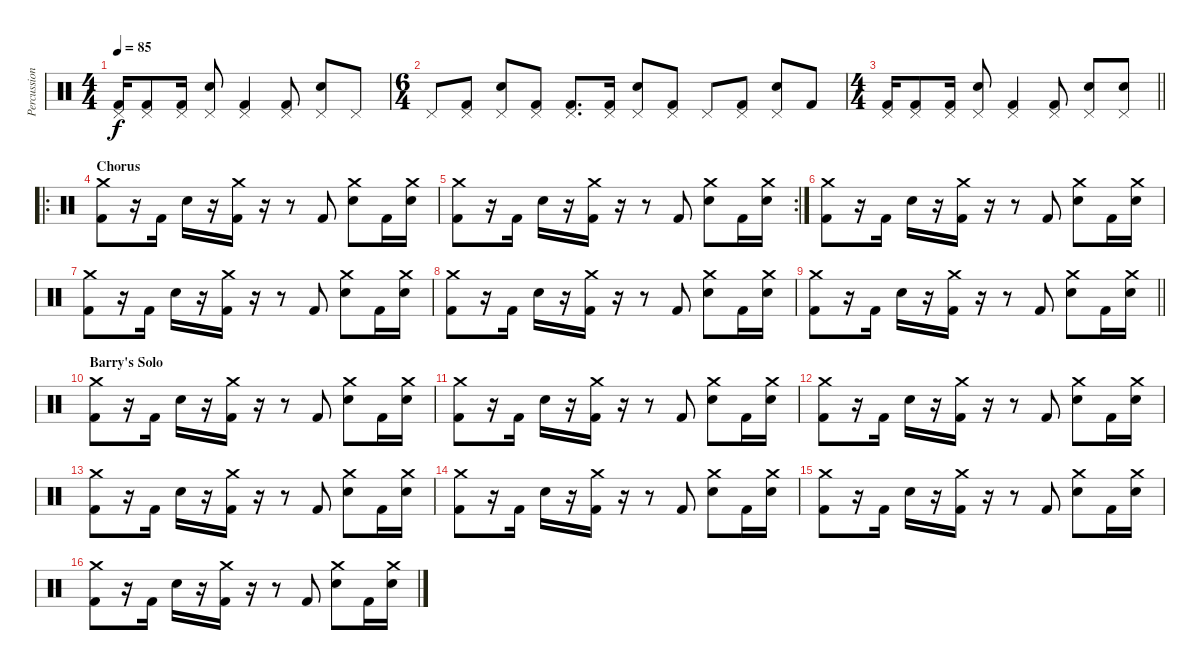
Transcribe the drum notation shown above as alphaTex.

\track ("Percussion (N. Sanderson)" "Percussion") {instrument percussion}
\staff {score}
\articulation defaults
\ts (4 4)
\tempo 85
\clef neutral
\ks c
("Pedal Hi-Hat (hit)" "Kick (hit) 2").16{dy f} ("Pedal Hi-Hat (hit)" "Kick (hit) 2").8 ("Pedal Hi-Hat (hit)" "Kick (hit) 2").16 ("Pedal Hi-Hat (hit)" "Electric Snare (hit)").8 ("Pedal Hi-Hat (hit)" "Kick (hit) 2").4 ("Pedal Hi-Hat (hit)" "Kick (hit) 2").8 ("Pedal Hi-Hat (hit)" "Electric Snare (hit)").8 "Pedal Hi-Hat (hit)".8 |
\ts (6 4)
"Pedal Hi-Hat (hit)".8 ("Pedal Hi-Hat (hit)" "Kick (hit) 2").8 ("Pedal Hi-Hat (hit)" "Electric Snare (hit)").8 ("Pedal Hi-Hat (hit)" "Kick (hit) 2").8 ("Pedal Hi-Hat (hit)" "Kick (hit) 2").8{d} ("Pedal Hi-Hat (hit)" "Kick (hit) 2").16 ("Pedal Hi-Hat (hit)" "Electric Snare (hit)").8 ("Pedal Hi-Hat (hit)" "Kick (hit) 2").8 "Pedal Hi-Hat (hit)".8 ("Pedal Hi-Hat (hit)" "Kick (hit) 2").8 ("Pedal Hi-Hat (hit)" "Electric Snare (hit)").8 "Kick (hit) 2".8 |
\ts (4 4)
\barLineRight lightlight
("Pedal Hi-Hat (hit)" "Kick (hit) 2").16 ("Pedal Hi-Hat (hit)" "Kick (hit) 2").8 ("Pedal Hi-Hat (hit)" "Kick (hit) 2").16 ("Pedal Hi-Hat (hit)" "Electric Snare (hit)").8 ("Pedal Hi-Hat (hit)" "Kick (hit) 2").4 ("Pedal Hi-Hat (hit)" "Kick (hit) 2").8 ("Pedal Hi-Hat (hit)" "Electric Snare (hit)").8 ("Pedal Hi-Hat (hit)" "Electric Snare (hit)").8 |
\ro
\section ("" "Chorus")
("Crash medium (hit)" "Kick (hit) 2").8 r.16 "Kick (hit) 2".16 "Electric Snare (hit)".16 r.16 ("Crash medium (hit)" "Kick (hit) 2").16 r.16 r.8 "Kick (hit) 2".8 ("Crash medium (hit)" "Electric Snare (hit)").8 "Kick (hit) 2".16 ("Crash medium (hit)" "Electric Snare (hit)").16 |
\rc 2
("Crash medium (hit)" "Kick (hit) 2").8 r.16 "Kick (hit) 2".16 "Electric Snare (hit)".16 r.16 ("Crash medium (hit)" "Kick (hit) 2").16 r.16 r.8 "Kick (hit) 2".8 ("Crash medium (hit)" "Electric Snare (hit)").8 "Kick (hit) 2".16 ("Crash medium (hit)" "Electric Snare (hit)").16 |
("Crash medium (hit)" "Kick (hit) 2").8 r.16 "Kick (hit) 2".16 "Electric Snare (hit)".16 r.16 ("Crash medium (hit)" "Kick (hit) 2").16 r.16 r.8 "Kick (hit) 2".8 ("Crash medium (hit)" "Electric Snare (hit)").8 "Kick (hit) 2".16 ("Crash medium (hit)" "Electric Snare (hit)").16 |
("Crash medium (hit)" "Kick (hit) 2").8 r.16 "Kick (hit) 2".16 "Electric Snare (hit)".16 r.16 ("Crash medium (hit)" "Kick (hit) 2").16 r.16 r.8 "Kick (hit) 2".8 ("Crash medium (hit)" "Electric Snare (hit)").8 "Kick (hit) 2".16 ("Crash medium (hit)" "Electric Snare (hit)").16 |
("Crash medium (hit)" "Kick (hit) 2").8 r.16 "Kick (hit) 2".16 "Electric Snare (hit)".16 r.16 ("Crash medium (hit)" "Kick (hit) 2").16 r.16 r.8 "Kick (hit) 2".8 ("Crash medium (hit)" "Electric Snare (hit)").8 "Kick (hit) 2".16 ("Crash medium (hit)" "Electric Snare (hit)").16 |
\barLineRight lightlight
("Crash medium (hit)" "Kick (hit) 2").8 r.16 "Kick (hit) 2".16 "Electric Snare (hit)".16 r.16 ("Crash medium (hit)" "Kick (hit) 2").16 r.16 r.8 "Kick (hit) 2".8 ("Crash medium (hit)" "Electric Snare (hit)").8 "Kick (hit) 2".16 ("Crash medium (hit)" "Electric Snare (hit)").16 |
\section ("" "Barry's Solo")
("Crash medium (hit)" "Kick (hit) 2").8 r.16 "Kick (hit) 2".16 "Electric Snare (hit)".16 r.16 ("Crash medium (hit)" "Kick (hit) 2").16 r.16 r.8 "Kick (hit) 2".8 ("Crash medium (hit)" "Electric Snare (hit)").8 "Kick (hit) 2".16 ("Crash medium (hit)" "Electric Snare (hit)").16 |
("Crash medium (hit)" "Kick (hit) 2").8 r.16 "Kick (hit) 2".16 "Electric Snare (hit)".16 r.16 ("Crash medium (hit)" "Kick (hit) 2").16 r.16 r.8 "Kick (hit) 2".8 ("Crash medium (hit)" "Electric Snare (hit)").8 "Kick (hit) 2".16 ("Crash medium (hit)" "Electric Snare (hit)").16 |
("Crash medium (hit)" "Kick (hit) 2").8 r.16 "Kick (hit) 2".16 "Electric Snare (hit)".16 r.16 ("Crash medium (hit)" "Kick (hit) 2").16 r.16 r.8 "Kick (hit) 2".8 ("Crash medium (hit)" "Electric Snare (hit)").8 "Kick (hit) 2".16 ("Crash medium (hit)" "Electric Snare (hit)").16 |
("Crash medium (hit)" "Kick (hit) 2").8 r.16 "Kick (hit) 2".16 "Electric Snare (hit)".16 r.16 ("Crash medium (hit)" "Kick (hit) 2").16 r.16 r.8 "Kick (hit) 2".8 ("Crash medium (hit)" "Electric Snare (hit)").8 "Kick (hit) 2".16 ("Crash medium (hit)" "Electric Snare (hit)").16 |
("Crash medium (hit)" "Kick (hit) 2").8 r.16 "Kick (hit) 2".16 "Electric Snare (hit)".16 r.16 ("Crash medium (hit)" "Kick (hit) 2").16 r.16 r.8 "Kick (hit) 2".8 ("Crash medium (hit)" "Electric Snare (hit)").8 "Kick (hit) 2".16 ("Crash medium (hit)" "Electric Snare (hit)").16 |
("Crash medium (hit)" "Kick (hit) 2").8 r.16 "Kick (hit) 2".16 "Electric Snare (hit)".16 r.16 ("Crash medium (hit)" "Kick (hit) 2").16 r.16 r.8 "Kick (hit) 2".8 ("Crash medium (hit)" "Electric Snare (hit)").8 "Kick (hit) 2".16 ("Crash medium (hit)" "Electric Snare (hit)").16 |
("Crash medium (hit)" "Kick (hit) 2").8 r.16 "Kick (hit) 2".16 "Electric Snare (hit)".16 r.16 ("Crash medium (hit)" "Kick (hit) 2").16 r.16 r.8 "Kick (hit) 2".8 ("Crash medium (hit)" "Electric Snare (hit)").8 "Kick (hit) 2".16 ("Crash medium (hit)" "Electric Snare (hit)").16
